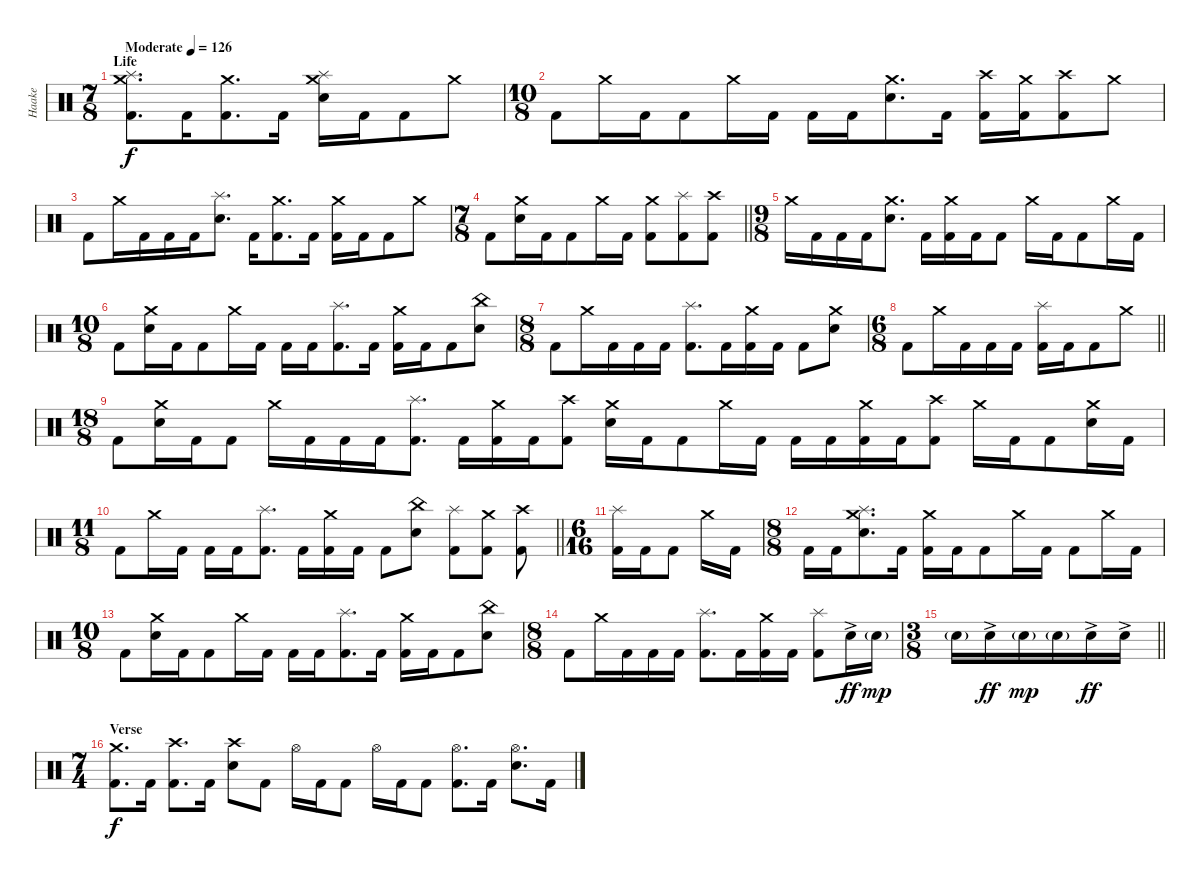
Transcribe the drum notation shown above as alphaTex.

\track ("Haake" "Haake") {instrument percussion}
\staff {score}
\articulation defaults
\ts (7 8)
\section ("" "Life")
\tempo (126 "Moderate")
\clef neutral
\ks c
("Crash medium (hit)" "Splash (hit)" "Kick (hit) 2").8{d dy f} "Kick (hit) 2".16 ("Crash medium (hit)" "Kick (hit) 2").8{d} "Kick (hit) 2".16 ("Crash medium (hit)" "Electric Snare (hit)" "Splash (hit)").16 "Kick (hit) 2".16 "Kick (hit) 2".8 "Crash medium (hit)".8 |
\ts (10 8)
"Kick (hit) 2".8 "Crash medium (hit)".16 "Kick (hit) 2".16 "Kick (hit) 2".8 "Crash medium (hit)".16 "Kick (hit) 2".16 "Kick (hit) 2".16 "Kick (hit) 2".16 ("Crash medium (hit)" "Electric Snare (hit)").8{d} "Kick (hit) 2".16 ("Crash high (hit)" "Kick (hit) 2").16 ("Crash medium (hit)" "Kick (hit) 2").16 ("Crash high (hit)" "Kick (hit) 2").8 "Crash medium (hit)".8 |
"Kick (hit) 2".8 "Crash medium (hit)".16 "Kick (hit) 2".16 "Kick (hit) 2".16 "Kick (hit) 2".16 ("Splash (hit)" "Electric Snare (hit)").8{d} "Kick (hit) 2".16 ("Crash medium (hit)" "Kick (hit) 2").8{d} "Kick (hit) 2".16 ("Crash medium (hit)" "Kick (hit) 2").16 "Kick (hit) 2".16 "Kick (hit) 2".8 "Crash medium (hit)".8 |
\ts (7 8)
\barLineRight lightlight "Kick (hit) 2".8
("Crash medium (hit)" "Electric Snare (hit)").16 "Kick (hit) 2".16 "Kick (hit) 2".8 "Crash medium (hit)".16 "Kick (hit) 2".16 ("Crash medium (hit)" "Kick (hit) 2").8 ("Splash (hit)" "Kick (hit) 2").8 ("Crash high (hit)" "Kick (hit) 2").8 |
\ts (9 8)
"Crash medium (hit)".16 "Kick (hit) 2".16 "Kick (hit) 2".16 "Kick (hit) 2".16 ("Crash medium (hit)" "Electric Snare (hit)").8{d} "Kick (hit) 2".16 ("Crash medium (hit)" "Kick (hit) 2").16 "Kick (hit) 2".16 "Kick (hit) 2".8 "Crash medium (hit)".16 "Kick (hit) 2".16 "Kick (hit) 2".8 "Crash medium (hit)".16 "Kick (hit) 2".16 |
\ts (10 8)
"Kick (hit) 2".8 ("Crash medium (hit)" "Electric Snare (hit)").16 "Kick (hit) 2".16 "Kick (hit) 2".8 "Crash medium (hit)".16 "Kick (hit) 2".16 "Kick (hit) 2".16 "Kick (hit) 2".16 ("Splash (hit)" "Kick (hit) 2").8{d} "Kick (hit) 2".16 ("Crash medium (hit)" "Kick (hit) 2").16 "Kick (hit) 2".16 "Kick (hit) 2".8 ("China (hit)" "Electric Snare (hit)").8 |
\ts (8 8)
"Kick (hit) 2".8 "Crash medium (hit)".16 "Kick (hit) 2".16 "Kick (hit) 2".16 "Kick (hit) 2".16 ("Splash (hit)" "Kick (hit) 2").8{d} "Kick (hit) 2".16 ("Crash medium (hit)" "Kick (hit) 2").16 "Kick (hit) 2".16 "Kick (hit) 2".8 ("Crash medium (hit)" "Electric Snare (hit)").8 |
\ts (6 8)
\barLineRight lightlight "Kick (hit) 2".8 "Crash medium (hit)".16 "Kick (hit) 2".16 "Kick (hit) 2".16 "Kick (hit) 2".16
("Splash (hit)" "Kick (hit) 2").16 "Kick (hit) 2".16 "Kick (hit) 2".8 "Crash medium (hit)".8 |
\ts (18 8)
"Kick (hit) 2".8 ("Crash medium (hit)" "Electric Snare (hit)").16 "Kick (hit) 2".16 "Kick (hit) 2".8 "Crash medium (hit)".16 "Kick (hit) 2".16 "Kick (hit) 2".16 "Kick (hit) 2".16 ("Splash (hit)" "Kick (hit) 2").8{d} "Kick (hit) 2".16 ("Crash medium (hit)" "Kick (hit) 2").16 "Kick (hit) 2".16 ("Crash high (hit)" "Kick (hit) 2").8 ("Crash medium (hit)" "Electric Snare (hit)").16 "Kick (hit) 2".16 "Kick (hit) 2".8 "Crash medium (hit)".16 "Kick (hit) 2".16 "Kick (hit) 2".16 "Kick (hit) 2".16 ("Crash medium (hit)" "Kick (hit) 2").16 "Kick (hit) 2".16 ("Crash high (hit)" "Kick (hit) 2").8 "Crash medium (hit)".16 "Kick (hit) 2".16 "Kick (hit) 2".8 ("Crash medium (hit)" "Electric Snare (hit)").16 "Kick (hit) 2".16 |
\ts (11 8)
\barLineRight lightlight "Kick (hit) 2".8 "Crash medium (hit)".16 "Kick (hit) 2".16 "Kick (hit) 2".16 "Kick (hit) 2".16
("Splash (hit)" "Kick (hit) 2").8{d} "Kick (hit) 2".16 ("Crash medium (hit)" "Kick (hit) 2").16 "Kick (hit) 2".16 "Kick (hit) 2".8 ("China (hit)" "Electric Snare (hit)").8 ("Splash (hit)" "Kick (hit) 2").8 ("Crash medium (hit)" "Kick (hit) 2").8 ("Crash high (hit)" "Kick (hit) 2").8 |
\ts (6 16)
("Splash (hit)" "Kick (hit) 2").16 "Kick (hit) 2".16 "Kick (hit) 2".8 "Crash medium (hit)".16 "Kick (hit) 2".16 |
\ts (8 8)
"Kick (hit) 2".16 "Kick (hit) 2".16 ("Crash medium (hit)" "Electric Snare (hit)" "Splash (hit)").8{d} "Kick (hit) 2".16 ("Crash medium (hit)" "Kick (hit) 2").16 "Kick (hit) 2".16 "Kick (hit) 2".8 "Crash medium (hit)".16 "Kick (hit) 2".16 "Kick (hit) 2".8 "Crash medium (hit)".16 "Kick (hit) 2".16 |
\ts (10 8)
"Kick (hit) 2".8 ("Crash medium (hit)" "Electric Snare (hit)").16 "Kick (hit) 2".16 "Kick (hit) 2".8 "Crash medium (hit)".16 "Kick (hit) 2".16 "Kick (hit) 2".16 "Kick (hit) 2".16 ("Splash (hit)" "Kick (hit) 2").8{d} "Kick (hit) 2".16 ("Crash medium (hit)" "Kick (hit) 2").16 "Kick (hit) 2".16 "Kick (hit) 2".8 ("China (hit)" "Electric Snare (hit)").8 |
\ts (8 8)
"Kick (hit) 2".8 "Crash medium (hit)".16 "Kick (hit) 2".16 "Kick (hit) 2".16 "Kick (hit) 2".16 ("Splash (hit)" "Kick (hit) 2").8{d} "Kick (hit) 2".16 ("Crash medium (hit)" "Kick (hit) 2").16 "Kick (hit) 2".16 ("Splash (hit)" "Kick (hit) 2").8 "Electric Snare (hit)"{ac}.16{dy ff} "Electric Snare (hit)"{g}.16{dy mp} |
\ts (3 8)
\barLineRight lightlight "Electric Snare (hit)"{g}.16 "Electric Snare (hit)"{ac}.16{dy ff} "Electric Snare (hit)"{g}.16{dy mp} "Electric Snare (hit)"{g}.16 "Electric Snare (hit)"{ac}.16{dy ff} "Electric Snare (hit)"{ac}.16
|
\ts (7 4)
\section ("" "Verse")
("Crash medium (hit)" "Kick (hit) 2").8{d dy f} "Kick (hit) 2".16 ("Crash high (hit)" "Kick (hit) 2").8{d} "Kick (hit) 2".16 ("Crash high (hit)" "Electric Snare (hit)").8 "Kick (hit) 2".8 "Hi-Hat (open)".16 "Kick (hit) 2".16 "Kick (hit) 2".8 "Hi-Hat (open)".16 "Kick (hit) 2".16 "Kick (hit) 2".8 ("Hi-Hat (open)" "Kick (hit) 2").8{d} "Kick (hit) 2".16 ("Hi-Hat (open)" "Electric Snare (hit)").8{d} "Kick (hit) 2".16
